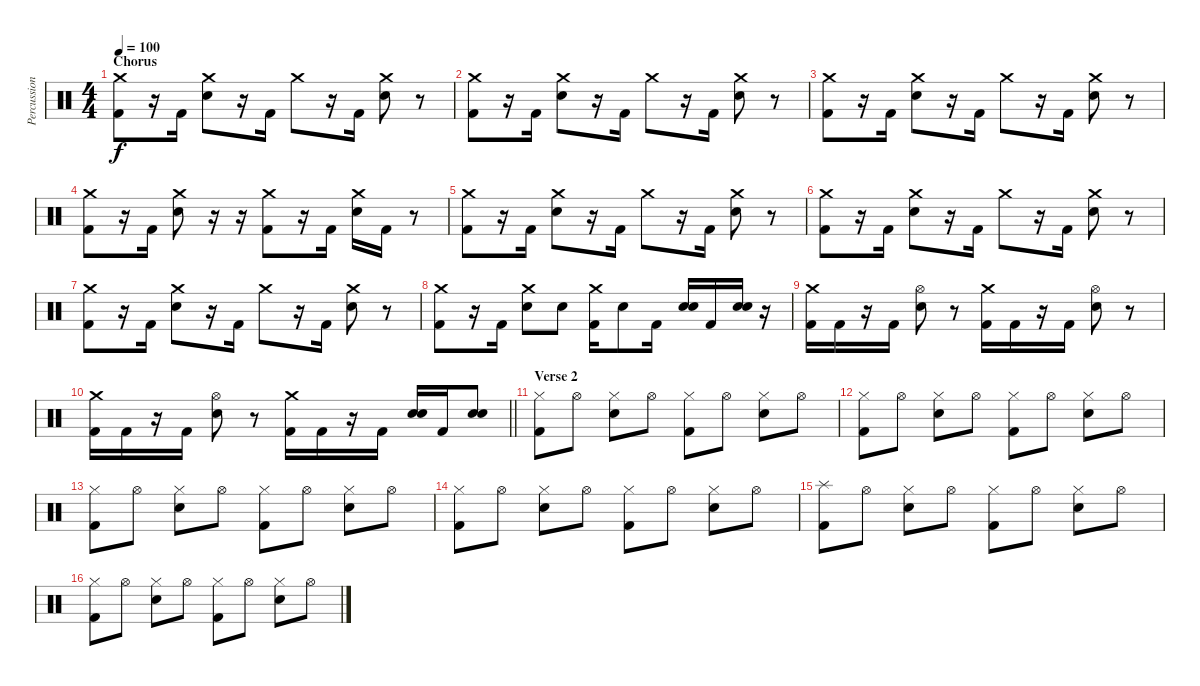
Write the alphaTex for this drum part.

\track ("Percussion" "Percussion") {instrument percussion}
\staff {score}
\articulation defaults
\ts (4 4)
\section ("" "Chorus")
\tempo 100
\clef neutral
\ks c
("Crash medium (hit)" "Kick (hit) 2").8{dy f} r.16 "Kick (hit) 2".16 ("Crash medium (hit)" "Snare (hit) 2").8 r.16 "Kick (hit) 2".16 "Crash medium (hit)".8 r.16 "Kick (hit) 2".16 ("Crash medium (hit)" "Snare (hit) 2").8 r.8 |
("Crash medium (hit)" "Kick (hit) 2").8 r.16 "Kick (hit) 2".16 ("Crash medium (hit)" "Snare (hit) 2").8 r.16 "Kick (hit) 2".16 "Crash medium (hit)".8 r.16 "Kick (hit) 2".16 ("Crash medium (hit)" "Snare (hit) 2").8 r.8 |
("Crash medium (hit)" "Kick (hit) 2").8 r.16 "Kick (hit) 2".16 ("Crash medium (hit)" "Snare (hit) 2").8 r.16 "Kick (hit) 2".16 "Crash medium (hit)".8 r.16 "Kick (hit) 2".16 ("Crash medium (hit)" "Snare (hit) 2").8 r.8 |
("Crash medium (hit)" "Kick (hit) 2").8 r.16 "Kick (hit) 2".16 ("Crash medium (hit)" "Snare (hit) 2").8 r.16 r.16 ("Crash medium (hit)" "Kick (hit) 2").8 r.16 "Kick (hit) 2".16 ("Crash medium (hit)" "Snare (hit) 2").16 "Kick (hit) 2".16 r.8 |
("Crash medium (hit)" "Kick (hit) 2").8 r.16 "Kick (hit) 2".16 ("Crash medium (hit)" "Snare (hit) 2").8 r.16 "Kick (hit) 2".16 "Crash medium (hit)".8 r.16 "Kick (hit) 2".16 ("Crash medium (hit)" "Snare (hit) 2").8 r.8 |
("Crash medium (hit)" "Kick (hit) 2").8 r.16 "Kick (hit) 2".16 ("Crash medium (hit)" "Snare (hit) 2").8 r.16 "Kick (hit) 2".16 "Crash medium (hit)".8 r.16 "Kick (hit) 2".16 ("Crash medium (hit)" "Snare (hit) 2").8 r.8 |
("Crash medium (hit)" "Kick (hit) 2").8 r.16 "Kick (hit) 2".16 ("Crash medium (hit)" "Snare (hit) 2").8 r.16 "Kick (hit) 2".16 "Crash medium (hit)".8 r.16 "Kick (hit) 2".16 ("Crash medium (hit)" "Snare (hit) 2").8 r.8 |
("Crash medium (hit)" "Kick (hit) 2").8 r.16 "Kick (hit) 2".16 ("Crash medium (hit)" "Snare (hit) 2").8 "Snare (hit) 2".8 ("Crash medium (hit)" "Kick (hit) 2").16 "Snare (hit) 2".8 "Kick (hit) 2".16 ("Snare (hit) 2" "Snare (hit) 2").16 "Kick (hit) 2".16 ("Snare (hit) 2" "Snare (hit) 2").16 r.16 |
("Crash medium (hit)" "Kick (hit) 2").16 "Kick (hit) 2".16 r.16 "Kick (hit) 2".16 ("Hi-Hat (open)" "Snare (hit) 2").8 r.8 ("Crash medium (hit)" "Kick (hit) 2").16 "Kick (hit) 2".16 r.16 "Kick (hit) 2".16 ("Hi-Hat (open)" "Snare (hit) 2").8 r.8 |
\barLineRight lightlight
("Crash medium (hit)" "Kick (hit) 2").16 "Kick (hit) 2".16 r.16 "Kick (hit) 2".16 ("Hi-Hat (open)" "Snare (hit) 2").8 r.8 ("Crash medium (hit)" "Kick (hit) 2").16 "Kick (hit) 2".16 r.16 "Kick (hit) 2".16 ("Snare (hit) 2" "Snare (hit) 2").16 "Kick (hit) 2".16 ("Snare (hit) 2" "Snare (hit) 2").8 |
\section ("" "Verse 2")
("Hi-Hat (closed)" "Kick (hit) 2").8 "Hi-Hat (open)".8 ("Hi-Hat (closed)" "Snare (hit) 2").8 "Hi-Hat (open)".8 ("Hi-Hat (closed)" "Kick (hit) 2").8 "Hi-Hat (open)".8 ("Hi-Hat (closed)" "Snare (hit) 2").8 "Hi-Hat (open)".8 |
("Hi-Hat (closed)" "Kick (hit) 2").8 "Hi-Hat (open)".8 ("Hi-Hat (closed)" "Snare (hit) 2").8 "Hi-Hat (open)".8 ("Hi-Hat (closed)" "Kick (hit) 2").8 "Hi-Hat (open)".8 ("Hi-Hat (closed)" "Snare (hit) 2").8 "Hi-Hat (open)".8 |
("Hi-Hat (closed)" "Kick (hit) 2").8 "Hi-Hat (open)".8 ("Hi-Hat (closed)" "Snare (hit) 2").8 "Hi-Hat (open)".8 ("Hi-Hat (closed)" "Kick (hit) 2").8 "Hi-Hat (open)".8 ("Hi-Hat (closed)" "Snare (hit) 2").8 "Hi-Hat (open)".8 |
("Hi-Hat (closed)" "Kick (hit) 2").8 "Hi-Hat (open)".8 ("Hi-Hat (closed)" "Snare (hit) 2").8 "Hi-Hat (open)".8 ("Hi-Hat (closed)" "Kick (hit) 2").8 "Hi-Hat (open)".8 ("Hi-Hat (closed)" "Snare (hit) 2").8 "Hi-Hat (open)".8 |
("Splash (hit)" "Kick (hit) 2").8 "Hi-Hat (open)".8 ("Hi-Hat (closed)" "Snare (hit) 2").8 "Hi-Hat (open)".8 ("Hi-Hat (closed)" "Kick (hit) 2").8 "Hi-Hat (open)".8 ("Hi-Hat (closed)" "Snare (hit) 2").8 "Hi-Hat (open)".8 |
("Hi-Hat (closed)" "Kick (hit) 2").8 "Hi-Hat (open)".8 ("Hi-Hat (closed)" "Snare (hit) 2").8 "Hi-Hat (open)".8 ("Hi-Hat (closed)" "Kick (hit) 2").8 "Hi-Hat (open)".8 ("Hi-Hat (closed)" "Snare (hit) 2").8 "Hi-Hat (open)".8
